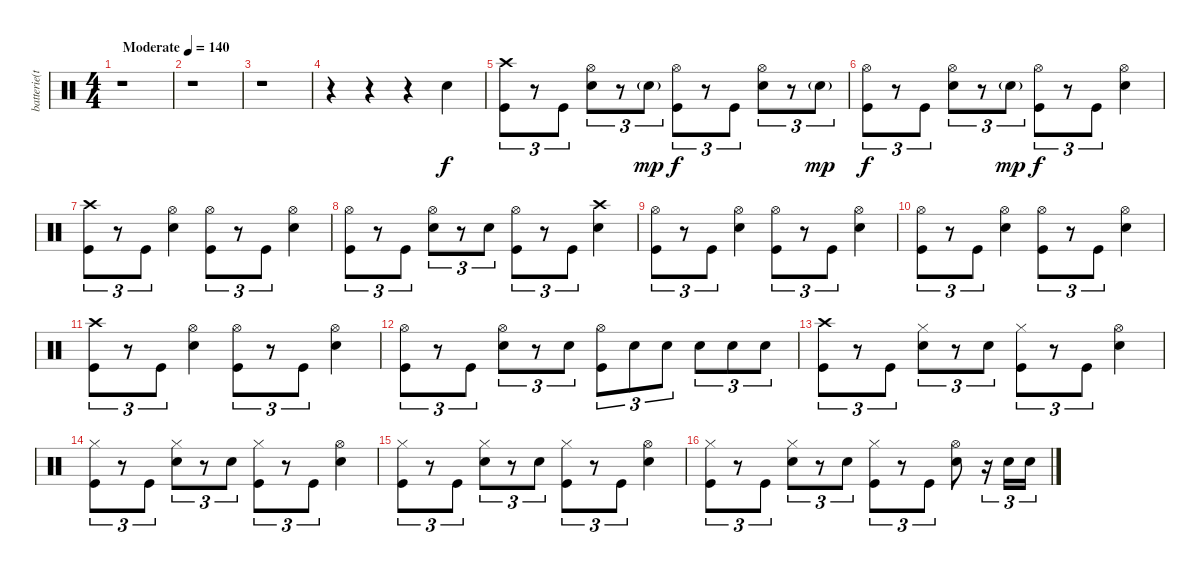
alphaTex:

\track ("batterie(tré)" "batterie(t") {instrument percussion}
\staff {score}
\articulation defaults
\ts (4 4)
\tempo (140 "Moderate")
\clef neutral
\ks c
r.1{dy f} |
r.1 |
r.1 |
r.4 r.4 r.4 "Electric Snare (hit)".4 |
("Crash high (hit)" "Kick (hit)").8{tu (3 2)} r.8{tu (3 2)} "Kick (hit)".8{tu (3 2)} ("Hi-Hat (open)" "Electric Snare (hit)").8{tu (3 2)} r.8{tu (3 2)} "Electric Snare (hit)"{g}.8{tu (3 2) dy mp} ("Hi-Hat (open)" "Kick (hit)").8{tu (3 2) dy f} r.8{tu (3 2)} "Kick (hit)".8{tu (3 2)} ("Hi-Hat (open)" "Electric Snare (hit)").8{tu (3 2)} r.8{tu (3 2)} "Electric Snare (hit)"{g}.8{tu (3 2) dy mp} |
("Hi-Hat (open)" "Kick (hit)").8{tu (3 2) dy f} r.8{tu (3 2)} "Kick (hit)".8{tu (3 2)} ("Hi-Hat (open)" "Electric Snare (hit)").8{tu (3 2)} r.8{tu (3 2)} "Electric Snare (hit)"{g}.8{tu (3 2) dy mp} ("Hi-Hat (open)" "Kick (hit)").8{tu (3 2) dy f} r.8{tu (3 2)} "Kick (hit)".8{tu (3 2)} ("Hi-Hat (open)" "Electric Snare (hit)").4 |
("Crash high (hit)" "Kick (hit)").8{tu (3 2)} r.8{tu (3 2)} "Kick (hit)".8{tu (3 2)} ("Hi-Hat (open)" "Electric Snare (hit)").4 ("Hi-Hat (open)" "Kick (hit)").8{tu (3 2)} r.8{tu (3 2)} "Kick (hit)".8{tu (3 2)} ("Hi-Hat (open)" "Electric Snare (hit)").4 |
("Hi-Hat (open)" "Kick (hit)").8{tu (3 2)} r.8{tu (3 2)} "Kick (hit)".8{tu (3 2)} ("Hi-Hat (open)" "Electric Snare (hit)").8{tu (3 2)} r.8{tu (3 2)} "Electric Snare (hit)".8{tu (3 2)} ("Hi-Hat (open)" "Kick (hit)").8{tu (3 2)} r.8{tu (3 2)} "Kick (hit)".8{tu (3 2)} ("Crash high (hit)" "Electric Snare (hit)").4 |
("Hi-Hat (open)" "Kick (hit)").8{tu (3 2)} r.8{tu (3 2)} "Kick (hit)".8{tu (3 2)} ("Hi-Hat (open)" "Electric Snare (hit)").4 ("Hi-Hat (open)" "Kick (hit)").8{tu (3 2)} r.8{tu (3 2)} "Kick (hit)".8{tu (3 2)} ("Hi-Hat (open)" "Electric Snare (hit)").4 |
("Hi-Hat (open)" "Kick (hit)").8{tu (3 2)} r.8{tu (3 2)} "Kick (hit)".8{tu (3 2)} ("Hi-Hat (open)" "Electric Snare (hit)").4 ("Hi-Hat (open)" "Kick (hit)").8{tu (3 2)} r.8{tu (3 2)} "Kick (hit)".8{tu (3 2)} ("Hi-Hat (open)" "Electric Snare (hit)").4 |
("Crash high (hit)" "Kick (hit)").8{tu (3 2)} r.8{tu (3 2)} "Kick (hit)".8{tu (3 2)} ("Hi-Hat (open)" "Electric Snare (hit)").4 ("Hi-Hat (open)" "Kick (hit)").8{tu (3 2)} r.8{tu (3 2)} "Kick (hit)".8{tu (3 2)} ("Hi-Hat (open)" "Electric Snare (hit)").4 |
("Hi-Hat (open)" "Kick (hit)").8{tu (3 2)} r.8{tu (3 2)} "Kick (hit)".8{tu (3 2)} ("Hi-Hat (open)" "Electric Snare (hit)").8{tu (3 2)} r.8{tu (3 2)} "Electric Snare (hit)".8{tu (3 2)} ("Hi-Hat (open)" "Kick (hit)").8{tu (3 2)} "Electric Snare (hit)".8{tu (3 2)} "Electric Snare (hit)".8{tu (3 2)} "Electric Snare (hit)".8{tu (3 2)} "Electric Snare (hit)".8{tu (3 2)} "Electric Snare (hit)".8{tu (3 2)} |
("Crash high (hit)" "Kick (hit)").8{tu (3 2)} r.8{tu (3 2)} "Kick (hit)".8{tu (3 2)} ("Hi-Hat (closed)" "Electric Snare (hit)").8{tu (3 2)} r.8{tu (3 2)} "Electric Snare (hit)".8{tu (3 2)} ("Hi-Hat (closed)" "Kick (hit)").8{tu (3 2)} r.8{tu (3 2)} "Kick (hit)".8{tu (3 2)} ("Hi-Hat (open)" "Electric Snare (hit)").4 |
("Hi-Hat (closed)" "Kick (hit)").8{tu (3 2)} r.8{tu (3 2)} "Kick (hit)".8{tu (3 2)} ("Hi-Hat (closed)" "Electric Snare (hit)").8{tu (3 2)} r.8{tu (3 2)} "Electric Snare (hit)".8{tu (3 2)} ("Hi-Hat (closed)" "Kick (hit)").8{tu (3 2)} r.8{tu (3 2)} "Kick (hit)".8{tu (3 2)} ("Hi-Hat (open)" "Electric Snare (hit)").4 |
("Hi-Hat (closed)" "Kick (hit)").8{tu (3 2)} r.8{tu (3 2)} "Kick (hit)".8{tu (3 2)} ("Hi-Hat (closed)" "Electric Snare (hit)").8{tu (3 2)} r.8{tu (3 2)} "Electric Snare (hit)".8{tu (3 2)} ("Hi-Hat (closed)" "Kick (hit)").8{tu (3 2)} r.8{tu (3 2)} "Kick (hit)".8{tu (3 2)} ("Hi-Hat (open)" "Electric Snare (hit)").4 |
("Hi-Hat (closed)" "Kick (hit)").8{tu (3 2)} r.8{tu (3 2)} "Kick (hit)".8{tu (3 2)} ("Hi-Hat (closed)" "Electric Snare (hit)").8{tu (3 2)} r.8{tu (3 2)} "Electric Snare (hit)".8{tu (3 2)} ("Hi-Hat (closed)" "Kick (hit)").8{tu (3 2)} r.8{tu (3 2)} "Kick (hit)".8{tu (3 2)} ("Hi-Hat (open)" "Electric Snare (hit)").8 r.16{tu (3 2)} "Electric Snare (hit)".16{tu (3 2)} "Electric Snare (hit)".16{tu (3 2)}
